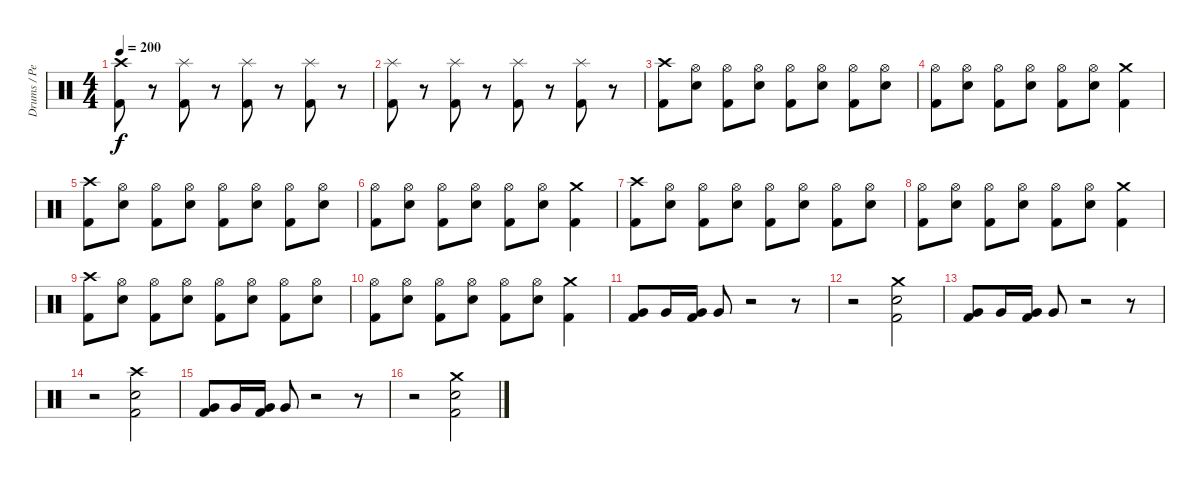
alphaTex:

\track ("Drums / Percussion" "Drums / Pe") {instrument percussion}
\staff {score}
\articulation defaults
\ts (4 4)
\tempo 200
\clef neutral
\ks c
("Crash high (hit)" "Kick (hit) 2").8{dy f} r.8 ("Splash (hit)" "Kick (hit) 2").8 r.8 ("Splash (hit)" "Kick (hit) 2").8 r.8 ("Splash (hit)" "Kick (hit) 2").8 r.8 |
("Splash (hit)" "Kick (hit) 2").8 r.8 ("Splash (hit)" "Kick (hit) 2").8 r.8 ("Splash (hit)" "Kick (hit) 2").8 r.8 ("Splash (hit)" "Kick (hit) 2").8 r.8 |
("Crash high (hit)" "Kick (hit) 2").8 ("Hi-Hat (open)" "Electric Snare (hit)").8 ("Hi-Hat (open)" "Kick (hit) 2").8 ("Hi-Hat (open)" "Electric Snare (hit)").8 ("Hi-Hat (open)" "Kick (hit) 2").8 ("Hi-Hat (open)" "Electric Snare (hit)").8 ("Hi-Hat (open)" "Kick (hit) 2").8 ("Hi-Hat (open)" "Electric Snare (hit)").8 |
("Hi-Hat (open)" "Kick (hit) 2").8 ("Hi-Hat (open)" "Electric Snare (hit)").8 ("Hi-Hat (open)" "Kick (hit) 2").8 ("Hi-Hat (open)" "Electric Snare (hit)").8 ("Hi-Hat (open)" "Kick (hit) 2").8 ("Hi-Hat (open)" "Electric Snare (hit)").8 ("Crash medium (hit)" "Kick (hit) 2").4 |
("Crash high (hit)" "Kick (hit) 2").8 ("Hi-Hat (open)" "Electric Snare (hit)").8 ("Hi-Hat (open)" "Kick (hit) 2").8 ("Hi-Hat (open)" "Electric Snare (hit)").8 ("Hi-Hat (open)" "Kick (hit) 2").8 ("Hi-Hat (open)" "Electric Snare (hit)").8 ("Hi-Hat (open)" "Kick (hit) 2").8 ("Hi-Hat (open)" "Electric Snare (hit)").8 |
("Hi-Hat (open)" "Kick (hit) 2").8 ("Hi-Hat (open)" "Electric Snare (hit)").8 ("Hi-Hat (open)" "Kick (hit) 2").8 ("Hi-Hat (open)" "Electric Snare (hit)").8 ("Hi-Hat (open)" "Kick (hit) 2").8 ("Hi-Hat (open)" "Electric Snare (hit)").8 ("Crash medium (hit)" "Kick (hit) 2").4 |
("Crash high (hit)" "Kick (hit) 2").8 ("Hi-Hat (open)" "Electric Snare (hit)").8 ("Hi-Hat (open)" "Kick (hit) 2").8 ("Hi-Hat (open)" "Electric Snare (hit)").8 ("Hi-Hat (open)" "Kick (hit) 2").8 ("Hi-Hat (open)" "Electric Snare (hit)").8 ("Hi-Hat (open)" "Kick (hit) 2").8 ("Hi-Hat (open)" "Electric Snare (hit)").8 |
("Hi-Hat (open)" "Kick (hit) 2").8 ("Hi-Hat (open)" "Electric Snare (hit)").8 ("Hi-Hat (open)" "Kick (hit) 2").8 ("Hi-Hat (open)" "Electric Snare (hit)").8 ("Hi-Hat (open)" "Kick (hit) 2").8 ("Hi-Hat (open)" "Electric Snare (hit)").8 ("Crash medium (hit)" "Kick (hit) 2").4 |
("Crash high (hit)" "Kick (hit) 2").8 ("Hi-Hat (open)" "Electric Snare (hit)").8 ("Hi-Hat (open)" "Kick (hit) 2").8 ("Hi-Hat (open)" "Electric Snare (hit)").8 ("Hi-Hat (open)" "Kick (hit) 2").8 ("Hi-Hat (open)" "Electric Snare (hit)").8 ("Hi-Hat (open)" "Kick (hit) 2").8 ("Hi-Hat (open)" "Electric Snare (hit)").8 |
("Hi-Hat (open)" "Kick (hit) 2").8 ("Hi-Hat (open)" "Electric Snare (hit)").8 ("Hi-Hat (open)" "Kick (hit) 2").8 ("Hi-Hat (open)" "Electric Snare (hit)").8 ("Hi-Hat (open)" "Kick (hit) 2").8 ("Hi-Hat (open)" "Electric Snare (hit)").8 ("Crash medium (hit)" "Kick (hit) 2").4 |
("Very Low Tom (hit)" "Kick (hit) 2").8 "Very Low Tom (hit)".16 ("Very Low Tom (hit)" "Kick (hit) 2").16 "Very Low Tom (hit)".8 r.2 r.8 |
r.2 ("Crash medium (hit)" "Electric Snare (hit)" "Kick (hit) 2").2 |
("Very Low Tom (hit)" "Kick (hit) 2").8 "Very Low Tom (hit)".16 ("Very Low Tom (hit)" "Kick (hit) 2").16 "Very Low Tom (hit)".8 r.2 r.8 |
r.2 ("Crash high (hit)" "Electric Snare (hit)" "Kick (hit) 2").2 |
("Very Low Tom (hit)" "Kick (hit) 2").8 "Very Low Tom (hit)".16 ("Very Low Tom (hit)" "Kick (hit) 2").16 "Very Low Tom (hit)".8 r.2 r.8 |
r.2 ("Crash medium (hit)" "Electric Snare (hit)" "Kick (hit) 2").2
